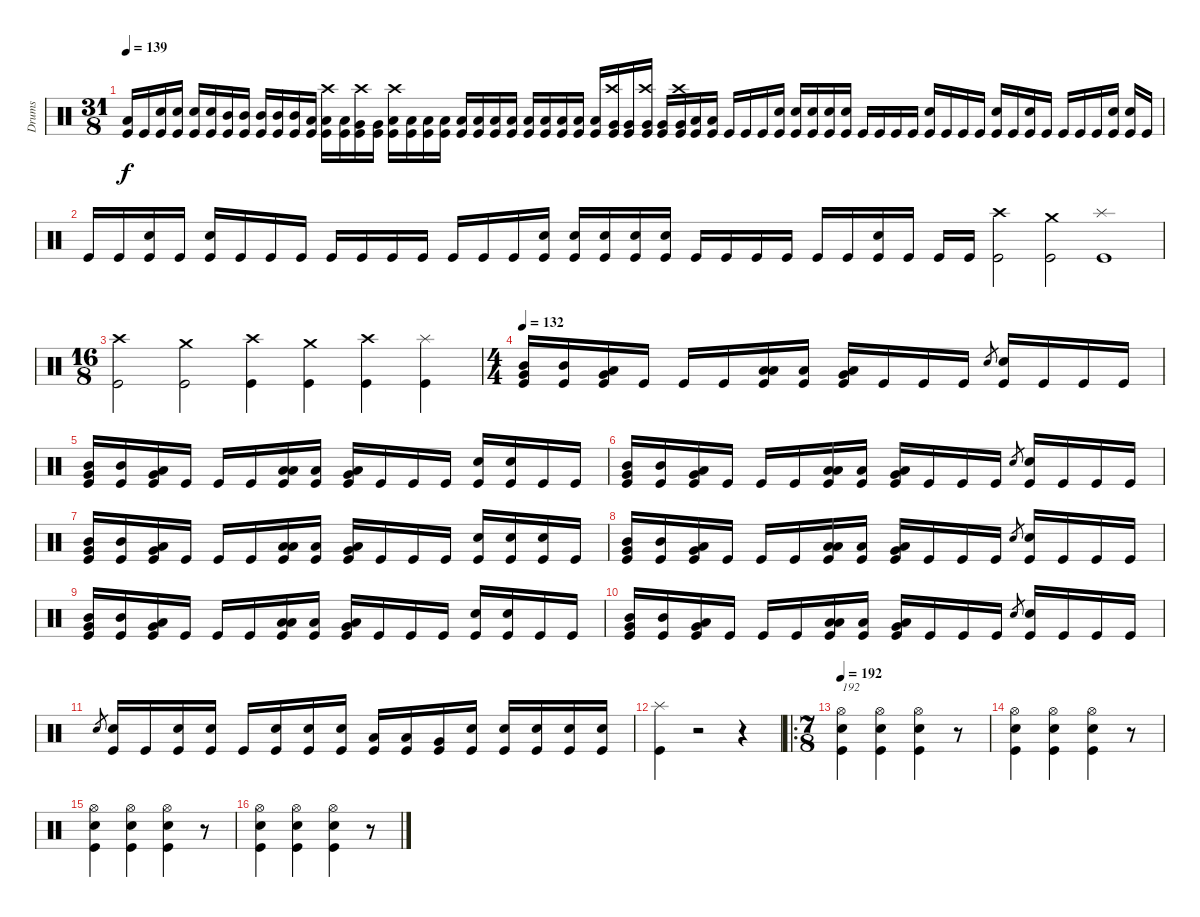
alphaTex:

\track ("Drums" "Drums") {instrument percussion}
\staff {score}
\articulation defaults
\ts (31 8)
\tempo 139
\clef neutral
\ks c
("Low Floor Tom (hit)" "Kick (hit)").16{dy f} "Kick (hit)".16 ("Snare (hit) 2" "Kick (hit)").16 ("Snare (hit) 2" "Kick (hit)").16 ("Snare (hit) 2" "Kick (hit)").16 ("Snare (hit) 2" "Kick (hit)").16 ("Mid Tom (hit)" "Kick (hit)").16 ("Mid Tom (hit)" "Kick (hit)").16 ("Mid Tom (hit)" "Kick (hit)").16 ("Mid Tom (hit)" "Kick (hit)").16 ("Mid Tom (hit)" "Kick (hit)").16 ("Low Tom (hit)" "Kick (hit)").16 ("Crash high (hit)" "Low Tom (hit)" "Kick (hit)").16 ("Low Tom (hit)" "Kick (hit)").16 ("Crash high (hit)" "Very Low Tom (hit)" "Kick (hit)").16 ("Very Low Tom (hit)" "Kick (hit)").16 ("Crash high (hit)" "Low Floor Tom (hit)" "Kick (hit)").16 ("Low Floor Tom (hit)" "Kick (hit)").16 ("Low Floor Tom (hit)" "Kick (hit)").16 ("Low Floor Tom (hit)" "Kick (hit)").16 ("Low Floor Tom (hit)" "Kick (hit)").16 ("Low Floor Tom (hit)" "Kick (hit)").16 ("Low Floor Tom (hit)" "Kick (hit)").16 ("Low Floor Tom (hit)" "Kick (hit)").16 ("Low Floor Tom (hit)" "Kick (hit)").16 ("Low Floor Tom (hit)" "Kick (hit)").16 ("Low Floor Tom (hit)" "Kick (hit)").16 ("Low Floor Tom (hit)" "Kick (hit)").16 ("Low Floor Tom (hit)" "Kick (hit)").16 ("Crash high (hit)" "Very Low Tom (hit)" "Kick (hit)").16 ("Very Low Tom (hit)" "Kick (hit)").16 ("Crash high (hit)" "Very Low Tom (hit)" "Kick (hit)").16 ("Very Low Tom (hit)" "Kick (hit)").16 ("Crash high (hit)" "Very Low Tom (hit)" "Kick (hit)").16 ("Low Tom (hit)" "Kick (hit)").16 ("Low Tom (hit)" "Kick (hit)").16 "Kick (hit)".16 "Kick (hit)".16 "Kick (hit)".16 ("Snare (hit) 2" "Kick (hit)").16 ("Snare (hit) 2" "Kick (hit)").16 ("Snare (hit) 2" "Kick (hit)").16 ("Snare (hit) 2" "Kick (hit)").16 ("Snare (hit) 2" "Kick (hit)").16 "Kick (hit)".16 "Kick (hit)".16 "Kick (hit)".16 "Kick (hit)".16 ("Snare (hit) 2" "Kick (hit)").16 "Kick (hit)".16 "Kick (hit)".16 "Kick (hit)".16 ("Snare (hit) 2" "Kick (hit)").16 "Kick (hit)".16 ("Snare (hit) 2" "Kick (hit)").16 "Kick (hit)".16 "Kick (hit)".16 "Kick (hit)".16 "Kick (hit)".16 ("Snare (hit) 2" "Kick (hit)").16 ("Snare (hit) 2" "Kick (hit)").16 "Kick (hit)".16 |
"Kick (hit)".16 "Kick (hit)".16 ("Snare (hit) 2" "Kick (hit)").16 "Kick (hit)".16 ("Snare (hit) 2" "Kick (hit)").16 "Kick (hit)".16 "Kick (hit)".16 "Kick (hit)".16 "Kick (hit)".16 "Kick (hit)".16 "Kick (hit)".16 "Kick (hit)".16 "Kick (hit)".16 "Kick (hit)".16 "Kick (hit)".16 ("Snare (hit) 2" "Kick (hit)").16 ("Snare (hit) 2" "Kick (hit)").16 ("Snare (hit) 2" "Kick (hit)").16 ("Snare (hit) 2" "Kick (hit)").16 ("Snare (hit) 2" "Kick (hit)").16 "Kick (hit)".16 "Kick (hit)".16 "Kick (hit)".16 "Kick (hit)".16 "Kick (hit)".16 "Kick (hit)".16 ("Snare (hit) 2" "Kick (hit)").16 "Kick (hit)".16 "Kick (hit)".16 "Kick (hit)".16 ("Crash high (hit)" "Kick (hit)").2 ("Crash medium (hit)" "Kick (hit)").2 ("Splash (hit)" "Kick (hit)").1 |
\ts (16 8)
("Crash high (hit)" "Kick (hit)").2 ("Crash medium (hit)" "Kick (hit)").2 ("Crash high (hit)" "Kick (hit)").4 ("Crash medium (hit)" "Kick (hit)").4 ("Crash high (hit)" "Kick (hit)").4 ("Splash (hit)" "Kick (hit)").4 |
\ts (4 4)
\tempo 132
("Mid Tom (hit)" "Very Low Tom (hit)" "Kick (hit)").16{volume 8} ("Mid Tom (hit)" "Kick (hit)").16 ("Low Tom (hit)" "Very Low Tom (hit)" "Kick (hit)").16 "Kick (hit)".16 "Kick (hit)".16 "Kick (hit)".16 ("Low Tom (hit)" "Low Floor Tom (hit)" "Kick (hit)").16 ("Low Tom (hit)" "Kick (hit)").16 ("Very Low Tom (hit)" "Low Floor Tom (hit)" "Kick (hit)").16 "Kick (hit)".16 "Kick (hit)".16 "Kick (hit)".16 "Snare (hit) 2".8{gr} ("Snare (hit) 2" "Kick (hit)").16 "Kick (hit)".16 "Kick (hit)".16 "Kick (hit)".16 |
("Mid Tom (hit)" "Very Low Tom (hit)" "Kick (hit)").16 ("Mid Tom (hit)" "Kick (hit)").16 ("Low Tom (hit)" "Very Low Tom (hit)" "Kick (hit)").16 "Kick (hit)".16 "Kick (hit)".16 "Kick (hit)".16 ("Low Tom (hit)" "Low Floor Tom (hit)" "Kick (hit)").16 ("Low Tom (hit)" "Kick (hit)").16 ("Very Low Tom (hit)" "Low Floor Tom (hit)" "Kick (hit)").16 "Kick (hit)".16 "Kick (hit)".16 "Kick (hit)".16 ("Snare (hit) 2" "Kick (hit)").16 ("Snare (hit) 2" "Kick (hit)").16 "Kick (hit)".16 "Kick (hit)".16 |
("Mid Tom (hit)" "Very Low Tom (hit)" "Kick (hit)").16 ("Mid Tom (hit)" "Kick (hit)").16 ("Low Tom (hit)" "Very Low Tom (hit)" "Kick (hit)").16 "Kick (hit)".16 "Kick (hit)".16 "Kick (hit)".16 ("Low Tom (hit)" "Low Floor Tom (hit)" "Kick (hit)").16 ("Low Tom (hit)" "Kick (hit)").16 ("Very Low Tom (hit)" "Low Floor Tom (hit)" "Kick (hit)").16 "Kick (hit)".16 "Kick (hit)".16 "Kick (hit)".16 "Snare (hit) 2".8{gr} ("Snare (hit) 2" "Kick (hit)").16 "Kick (hit)".16 "Kick (hit)".16 "Kick (hit)".16 |
("Mid Tom (hit)" "Very Low Tom (hit)" "Kick (hit)").16 ("Mid Tom (hit)" "Kick (hit)").16 ("Low Tom (hit)" "Very Low Tom (hit)" "Kick (hit)").16 "Kick (hit)".16 "Kick (hit)".16 "Kick (hit)".16 ("Low Tom (hit)" "Low Floor Tom (hit)" "Kick (hit)").16 ("Low Tom (hit)" "Kick (hit)").16 ("Very Low Tom (hit)" "Low Floor Tom (hit)" "Kick (hit)").16 "Kick (hit)".16 "Kick (hit)".16 "Kick (hit)".16 ("Snare (hit) 2" "Kick (hit)").16 ("Snare (hit) 2" "Kick (hit)").16 ("Snare (hit) 2" "Kick (hit)").16 "Kick (hit)".16 |
("Mid Tom (hit)" "Very Low Tom (hit)" "Kick (hit)").16 ("Mid Tom (hit)" "Kick (hit)").16 ("Low Tom (hit)" "Very Low Tom (hit)" "Kick (hit)").16 "Kick (hit)".16 "Kick (hit)".16 "Kick (hit)".16 ("Low Tom (hit)" "Low Floor Tom (hit)" "Kick (hit)").16 ("Low Tom (hit)" "Kick (hit)").16 ("Very Low Tom (hit)" "Low Floor Tom (hit)" "Kick (hit)").16 "Kick (hit)".16 "Kick (hit)".16 "Kick (hit)".16 "Snare (hit) 2".8{gr} ("Snare (hit) 2" "Kick (hit)").16 "Kick (hit)".16 "Kick (hit)".16 "Kick (hit)".16 |
("Mid Tom (hit)" "Very Low Tom (hit)" "Kick (hit)").16 ("Mid Tom (hit)" "Kick (hit)").16 ("Low Tom (hit)" "Very Low Tom (hit)" "Kick (hit)").16 "Kick (hit)".16 "Kick (hit)".16 "Kick (hit)".16 ("Low Tom (hit)" "Low Floor Tom (hit)" "Kick (hit)").16 ("Low Tom (hit)" "Kick (hit)").16 ("Very Low Tom (hit)" "Low Floor Tom (hit)" "Kick (hit)").16 "Kick (hit)".16 "Kick (hit)".16 "Kick (hit)".16 ("Snare (hit) 2" "Kick (hit)").16 ("Snare (hit) 2" "Kick (hit)").16 "Kick (hit)".16 "Kick (hit)".16 |
("Mid Tom (hit)" "Very Low Tom (hit)" "Kick (hit)").16 ("Mid Tom (hit)" "Kick (hit)").16 ("Low Tom (hit)" "Very Low Tom (hit)" "Kick (hit)").16 "Kick (hit)".16 "Kick (hit)".16 "Kick (hit)".16 ("Low Tom (hit)" "Low Floor Tom (hit)" "Kick (hit)").16 ("Low Tom (hit)" "Kick (hit)").16 ("Very Low Tom (hit)" "Low Floor Tom (hit)" "Kick (hit)").16 "Kick (hit)".16 "Kick (hit)".16 "Kick (hit)".16 "Snare (hit) 2".8{gr} ("Snare (hit) 2" "Kick (hit)").16 "Kick (hit)".16 "Kick (hit)".16 "Kick (hit)".16 |
"Snare (hit) 2".8{gr} ("Snare (hit) 2" "Kick (hit)").16 "Kick (hit)".16 ("Snare (hit) 2" "Kick (hit)").16 ("Snare (hit) 2" "Kick (hit)").16 "Kick (hit)".16 ("Snare (hit) 2" "Kick (hit)").16 ("Snare (hit) 2" "Kick (hit)").16 ("Snare (hit) 2" "Kick (hit)").16 ("Low Tom (hit)" "Kick (hit)").16 ("Low Tom (hit)" "Kick (hit)").16 ("Very Low Tom (hit)" "Kick (hit)").16 ("Snare (hit) 2" "Kick (hit)").16 ("Snare (hit) 2" "Kick (hit)").16 ("Snare (hit) 2" "Kick (hit)").16 ("Snare (hit) 2" "Kick (hit)").16 ("Snare (hit) 2" "Kick (hit)").16 |
("Splash (hit)" "Kick (hit)").4 r.2 r.4 |
\ro
\ts (7 8)
\tempo 192
("Hi-Hat (open)" "Snare (hit) 2" "Kick (hit)").4{txt "192" volume 11} ("Hi-Hat (open)" "Snare (hit) 2" "Kick (hit)").4 ("Hi-Hat (open)" "Snare (hit) 2" "Kick (hit)").4 r.8 |
("Hi-Hat (open)" "Snare (hit) 2" "Kick (hit)").4 ("Hi-Hat (open)" "Snare (hit) 2" "Kick (hit)").4 ("Hi-Hat (open)" "Snare (hit) 2" "Kick (hit)").4 r.8 |
("Hi-Hat (open)" "Snare (hit) 2" "Kick (hit)").4 ("Hi-Hat (open)" "Snare (hit) 2" "Kick (hit)").4 ("Hi-Hat (open)" "Snare (hit) 2" "Kick (hit)").4 r.8 |
("Hi-Hat (open)" "Snare (hit) 2" "Kick (hit)").4 ("Hi-Hat (open)" "Snare (hit) 2" "Kick (hit)").4 ("Hi-Hat (open)" "Snare (hit) 2" "Kick (hit)").4 r.8
